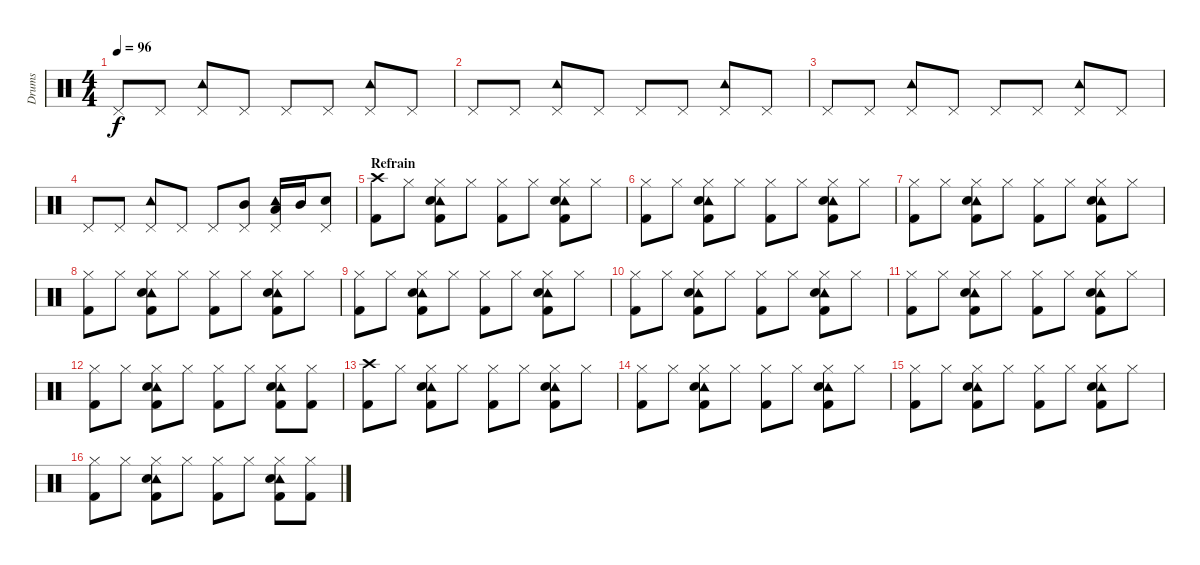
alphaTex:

\track ("Drums" "Drums") {instrument percussion}
\staff {score}
\articulation defaults
\ts (4 4)
\tempo 96
\clef neutral
\ks c "Pedal Hi-Hat (hit)".8{dy f} "Pedal Hi-Hat (hit)".8
("Pedal Hi-Hat (hit)" "Tambourine (hit)").8 "Pedal Hi-Hat (hit)".8 "Pedal Hi-Hat (hit)".8 "Pedal Hi-Hat (hit)".8 ("Pedal Hi-Hat (hit)" "Tambourine (hit)").8 "Pedal Hi-Hat (hit)".8 |
"Pedal Hi-Hat (hit)".8 "Pedal Hi-Hat (hit)".8 ("Pedal Hi-Hat (hit)" "Tambourine (hit)").8 "Pedal Hi-Hat (hit)".8 "Pedal Hi-Hat (hit)".8 "Pedal Hi-Hat (hit)".8 ("Pedal Hi-Hat (hit)" "Tambourine (hit)").8 "Pedal Hi-Hat (hit)".8 |
"Pedal Hi-Hat (hit)".8 "Pedal Hi-Hat (hit)".8 ("Pedal Hi-Hat (hit)" "Tambourine (hit)").8 "Pedal Hi-Hat (hit)".8 "Pedal Hi-Hat (hit)".8 "Pedal Hi-Hat (hit)".8 ("Pedal Hi-Hat (hit)" "Tambourine (hit)").8 "Pedal Hi-Hat (hit)".8 |
"Pedal Hi-Hat (hit)".8 "Pedal Hi-Hat (hit)".8 ("Pedal Hi-Hat (hit)" "Tambourine (hit)").8 "Pedal Hi-Hat (hit)".8 "Pedal Hi-Hat (hit)".8 ("Pedal Hi-Hat (hit)" "Mid Tom (hit)").8 ("Pedal Hi-Hat (hit)" "Tambourine (hit)" "Low Tom (hit)").16 "Mid Tom (hit)".16 ("Pedal Hi-Hat (hit)" "Snare (hit) 2").8 |
\section ("" "Refrain")
("Crash high (hit)" "Kick (hit) 2").8 "Hi-Hat (closed)".8 ("Hi-Hat (closed)" "Tambourine (hit)" "Snare (hit) 2" "Kick (hit) 2").8 "Hi-Hat (closed)".8 ("Hi-Hat (closed)" "Kick (hit) 2").8 "Hi-Hat (closed)".8 ("Hi-Hat (closed)" "Tambourine (hit)" "Snare (hit) 2" "Kick (hit) 2").8 "Hi-Hat (closed)".8 |
("Hi-Hat (closed)" "Kick (hit) 2").8 "Hi-Hat (closed)".8 ("Hi-Hat (closed)" "Tambourine (hit)" "Snare (hit) 2" "Kick (hit) 2").8 "Hi-Hat (closed)".8 ("Hi-Hat (closed)" "Kick (hit) 2").8 "Hi-Hat (closed)".8 ("Hi-Hat (closed)" "Tambourine (hit)" "Snare (hit) 2" "Kick (hit) 2").8 "Hi-Hat (closed)".8 |
("Hi-Hat (closed)" "Kick (hit) 2").8 "Hi-Hat (closed)".8 ("Hi-Hat (closed)" "Tambourine (hit)" "Snare (hit) 2" "Kick (hit) 2").8 "Hi-Hat (closed)".8 ("Hi-Hat (closed)" "Kick (hit) 2").8 "Hi-Hat (closed)".8 ("Hi-Hat (closed)" "Tambourine (hit)" "Snare (hit) 2" "Kick (hit) 2").8 "Hi-Hat (closed)".8 |
("Hi-Hat (closed)" "Kick (hit) 2").8 "Hi-Hat (closed)".8 ("Hi-Hat (closed)" "Tambourine (hit)" "Snare (hit) 2" "Kick (hit) 2").8 "Hi-Hat (closed)".8 ("Hi-Hat (closed)" "Kick (hit) 2").8 "Hi-Hat (closed)".8 ("Hi-Hat (closed)" "Tambourine (hit)" "Snare (hit) 2" "Kick (hit) 2").8 "Hi-Hat (closed)".8 |
("Hi-Hat (closed)" "Kick (hit) 2").8 "Hi-Hat (closed)".8 ("Hi-Hat (closed)" "Tambourine (hit)" "Snare (hit) 2" "Kick (hit) 2").8 "Hi-Hat (closed)".8 ("Hi-Hat (closed)" "Kick (hit) 2").8 "Hi-Hat (closed)".8 ("Hi-Hat (closed)" "Tambourine (hit)" "Snare (hit) 2" "Kick (hit) 2").8 "Hi-Hat (closed)".8 |
("Hi-Hat (closed)" "Kick (hit) 2").8 "Hi-Hat (closed)".8 ("Hi-Hat (closed)" "Tambourine (hit)" "Snare (hit) 2" "Kick (hit) 2").8 "Hi-Hat (closed)".8 ("Hi-Hat (closed)" "Kick (hit) 2").8 "Hi-Hat (closed)".8 ("Hi-Hat (closed)" "Tambourine (hit)" "Snare (hit) 2" "Kick (hit) 2").8 "Hi-Hat (closed)".8 |
("Hi-Hat (closed)" "Kick (hit) 2").8 "Hi-Hat (closed)".8 ("Hi-Hat (closed)" "Tambourine (hit)" "Snare (hit) 2" "Kick (hit) 2").8 "Hi-Hat (closed)".8 ("Hi-Hat (closed)" "Kick (hit) 2").8 "Hi-Hat (closed)".8 ("Hi-Hat (closed)" "Tambourine (hit)" "Snare (hit) 2" "Kick (hit) 2").8 "Hi-Hat (closed)".8 |
("Hi-Hat (closed)" "Kick (hit) 2").8 "Hi-Hat (closed)".8 ("Hi-Hat (closed)" "Tambourine (hit)" "Snare (hit) 2" "Kick (hit) 2").8 "Hi-Hat (closed)".8 ("Hi-Hat (closed)" "Kick (hit) 2").8 "Hi-Hat (closed)".8 ("Hi-Hat (closed)" "Tambourine (hit)" "Snare (hit) 2" "Kick (hit) 2").8 ("Hi-Hat (closed)" "Kick (hit) 2").8 |
("Crash high (hit)" "Kick (hit) 2").8 "Hi-Hat (closed)".8 ("Hi-Hat (closed)" "Tambourine (hit)" "Snare (hit) 2" "Kick (hit) 2").8 "Hi-Hat (closed)".8 ("Hi-Hat (closed)" "Kick (hit) 2").8 "Hi-Hat (closed)".8 ("Hi-Hat (closed)" "Tambourine (hit)" "Snare (hit) 2" "Kick (hit) 2").8 "Hi-Hat (closed)".8 |
("Hi-Hat (closed)" "Kick (hit) 2").8 "Hi-Hat (closed)".8 ("Hi-Hat (closed)" "Tambourine (hit)" "Snare (hit) 2" "Kick (hit) 2").8 "Hi-Hat (closed)".8 ("Hi-Hat (closed)" "Kick (hit) 2").8 "Hi-Hat (closed)".8 ("Hi-Hat (closed)" "Tambourine (hit)" "Snare (hit) 2" "Kick (hit) 2").8 "Hi-Hat (closed)".8 |
("Hi-Hat (closed)" "Kick (hit) 2").8 "Hi-Hat (closed)".8 ("Hi-Hat (closed)" "Tambourine (hit)" "Snare (hit) 2" "Kick (hit) 2").8 "Hi-Hat (closed)".8 ("Hi-Hat (closed)" "Kick (hit) 2").8 "Hi-Hat (closed)".8 ("Hi-Hat (closed)" "Tambourine (hit)" "Snare (hit) 2" "Kick (hit) 2").8 "Hi-Hat (closed)".8 |
("Hi-Hat (closed)" "Kick (hit) 2").8 "Hi-Hat (closed)".8 ("Hi-Hat (closed)" "Tambourine (hit)" "Snare (hit) 2" "Kick (hit) 2").8 "Hi-Hat (closed)".8 ("Hi-Hat (closed)" "Kick (hit) 2").8 "Hi-Hat (closed)".8 ("Hi-Hat (closed)" "Tambourine (hit)" "Snare (hit) 2" "Kick (hit) 2").8 ("Hi-Hat (closed)" "Kick (hit) 2").8
